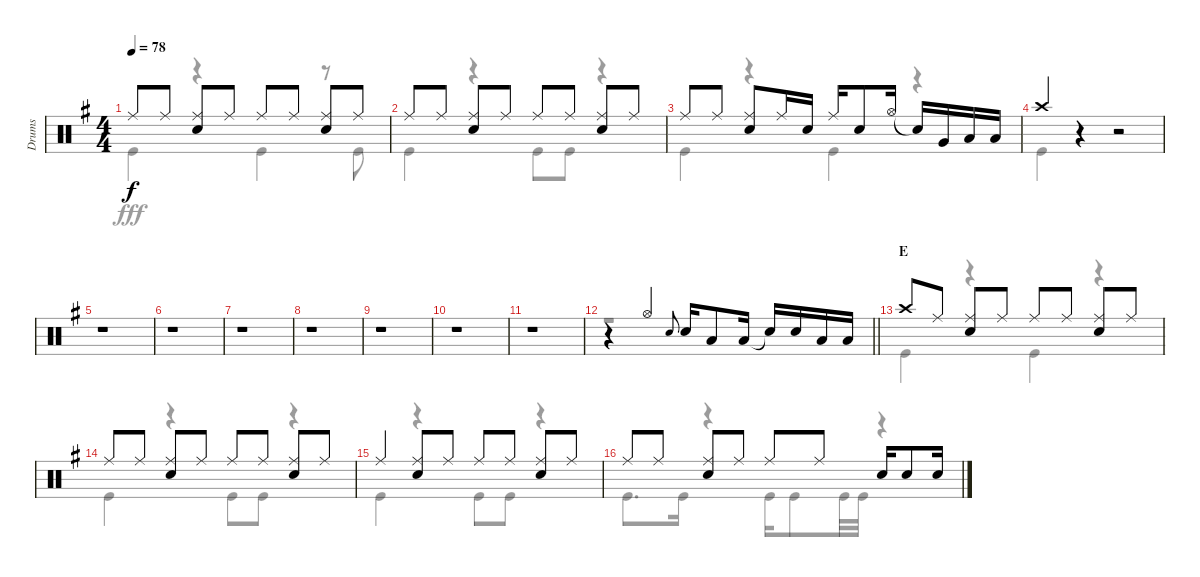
\track ("Drums" "Drums") {instrument percussion}
\staff {score}
\articulation defaults
\voice
\ts (4 4)
\tempo 78
\clef neutral
\ks g "Ride (middle)".8{dy f} "Ride (middle)".8
("Ride (middle)" "Snare (hit) 2").8 "Ride (middle)".8 "Ride (middle)".8 "Ride (middle)".8 ("Ride (middle)" "Snare (hit) 2").8 "Ride (middle)".8 |
"Ride (middle)".8 "Ride (middle)".8 ("Ride (middle)" "Snare (hit) 2").8 "Ride (middle)".8 "Ride (middle)".8 "Ride (middle)".8 ("Ride (middle)" "Snare (hit) 2").8 "Ride (middle)".8 |
"Ride (middle)".8 "Ride (middle)".8 ("Ride (middle)" "Snare (hit) 2").8 "Ride (middle)".16 "Snare (hit) 2".16 "Ride (middle)".16 "Snare (hit) 2".8 "Hi-Hat (open)".16 "Snare (hit)"{t}.16 "Very Low Tom (hit)".16 "Low Tom (hit)".16 "Low Tom (hit)".16 |
"Crash high (hit)".4 r.4 r.2 |
r.1 |
r.1 |
r.1 |
r.1 |
r.1 |
r.1 |
r.1 |
\barLineRight lightlight
r.4 "Hi-Hat (open)".4 "Snare (hit) 2".8{gr onbeat} "Snare (hit) 2".16 "Low Tom (hit)".8 "Low Tom (hit)".16 "Snare (hit)"{t}.16 "Snare (hit) 2".16 "Low Tom (hit)".16 "Low Tom (hit)".16 |
\section ("" "E")
"Crash high (hit)".8 "Ride (middle)".8 ("Ride (middle)" "Snare (hit) 2").8 "Ride (middle)".8 "Ride (middle)".8 "Ride (middle)".8 ("Ride (middle)" "Snare (hit) 2").8 "Ride (middle)".8 |
"Ride (middle)".8 "Ride (middle)".8 ("Ride (middle)" "Snare (hit) 2").8 "Ride (middle)".8 "Ride (middle)".8 "Ride (middle)".8 ("Ride (middle)" "Snare (hit) 2").8 "Ride (middle)".8 |
"Ride (middle)".4 ("Ride (middle)" "Snare (hit) 2").8 "Ride (middle)".8 "Ride (middle)".8 "Ride (middle)".8 ("Ride (middle)" "Snare (hit) 2").8 "Ride (middle)".8 |
"Ride (middle)".8 "Ride (middle)".8 ("Ride (middle)" "Snare (hit) 2").8 "Ride (middle)".8 "Ride (middle)".8 "Ride (middle)".8 "Snare (hit) 2".16 "Snare (hit) 2".8 "Snare (hit) 2".16
\voice
\clef neutral
\ottava regular
\simile none
\ks g "Kick (hit)".4{dy fff}
r.4 "Kick (hit)".4 r.8 "Kick (hit)".8 |
"Kick (hit)".4 r.4 "Kick (hit)".8 "Kick (hit)".8 r.4 |
"Kick (hit)".4 r.4 "Kick (hit)".4 r.4 |
"Kick (hit)".4 r.4 r.2 |
r.1 |
r.1 |
r.1 |
r.1 |
r.1 |
r.1 |
r.1 |
\barLineRight lightlight
r.1 |
"Kick (hit)".4 r.4 "Kick (hit)".4 r.4 |
"Kick (hit)".4 r.4 "Kick (hit)".8 "Kick (hit)".8 r.4 |
"Kick (hit)".4 r.4 "Kick (hit)".8 "Kick (hit)".8 r.4 |
"Kick (hit)".8{d} "Kick (hit)".16 r.4 "Kick (hit)".16 "Kick (hit)".8 "Kick (hit)".32 "Kick (hit)".32 r.4
